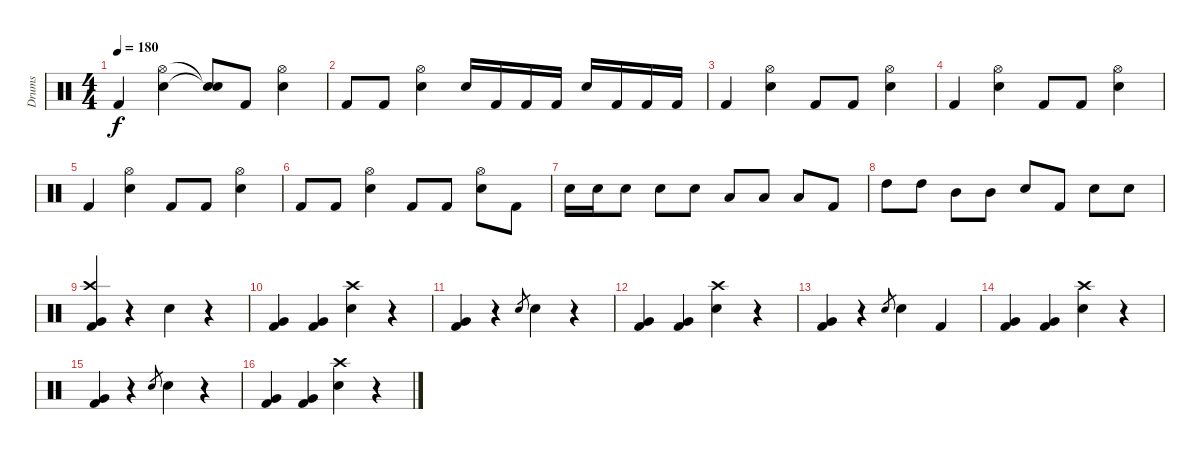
\track ("Drums" "Drums") {instrument percussion}
\staff {score}
\articulation defaults
\ts (4 4)
\tempo 180
\clef neutral
\ks c "Kick (hit) 2".4{dy f}
("Hi-Hat (open)" "Electric Snare (hit)").4 ("Snare (hit)"{t} "Snare (hit)"{t}).8 "Kick (hit) 2".8 ("Hi-Hat (open)" "Electric Snare (hit)").4 |
"Kick (hit) 2".8 "Kick (hit) 2".8 ("Hi-Hat (open)" "Electric Snare (hit)").4 "Electric Snare (hit)".16 "Kick (hit) 2".16 "Kick (hit) 2".16 "Kick (hit) 2".16 "Electric Snare (hit)".16 "Kick (hit) 2".16 "Kick (hit) 2".16 "Kick (hit) 2".16 |
"Kick (hit) 2".4 ("Hi-Hat (open)" "Electric Snare (hit)").4 "Kick (hit) 2".8 "Kick (hit) 2".8 ("Hi-Hat (open)" "Electric Snare (hit)").4 |
"Kick (hit) 2".4 ("Hi-Hat (open)" "Electric Snare (hit)").4 "Kick (hit) 2".8 "Kick (hit) 2".8 ("Hi-Hat (open)" "Electric Snare (hit)").4 |
"Kick (hit) 2".4 ("Hi-Hat (open)" "Electric Snare (hit)").4 "Kick (hit) 2".8 "Kick (hit) 2".8 ("Hi-Hat (open)" "Electric Snare (hit)").4 |
"Kick (hit) 2".8 "Kick (hit) 2".8 ("Hi-Hat (open)" "Electric Snare (hit)").4 "Kick (hit) 2".8 "Kick (hit) 2".8 ("Hi-Hat (open)" "Electric Snare (hit)").8 "Kick (hit) 2".8 |
"Electric Snare (hit)".16 "Electric Snare (hit)".16 "Electric Snare (hit)".8 "Electric Snare (hit)".8 "Electric Snare (hit)".8 "Low Tom (hit)".8 "Low Tom (hit)".8 "Low Tom (hit)".8 "Kick (hit) 2".8 |
"High Tom (hit)".8 "High Tom (hit)".8 "Mid Tom (hit)".8 "Mid Tom (hit)".8 "Electric Snare (hit)".8 "Kick (hit) 2".8 "Electric Snare (hit)".8 "Electric Snare (hit)".8 |
("Crash high (hit)" "Very Low Tom (hit)" "Kick (hit) 2").4 r.4 "Electric Snare (hit)".4 r.4 |
("Very Low Tom (hit)" "Kick (hit) 2").4 ("Very Low Tom (hit)" "Kick (hit) 2").4 ("Crash high (hit)" "Electric Snare (hit)").4 r.4 |
("Very Low Tom (hit)" "Kick (hit) 2").4 r.4 "Electric Snare (hit)".8{gr} "Electric Snare (hit)".4 r.4 |
("Very Low Tom (hit)" "Kick (hit) 2").4 ("Very Low Tom (hit)" "Kick (hit) 2").4 ("Crash high (hit)" "Electric Snare (hit)").4 r.4 |
("Very Low Tom (hit)" "Kick (hit) 2").4 r.4 "Electric Snare (hit)".8{gr} "Electric Snare (hit)".4 "Kick (hit) 2".4 |
("Very Low Tom (hit)" "Kick (hit) 2").4 ("Very Low Tom (hit)" "Kick (hit) 2").4 ("Crash high (hit)" "Electric Snare (hit)").4 r.4 |
("Very Low Tom (hit)" "Kick (hit) 2").4 r.4 "Electric Snare (hit)".8{gr} "Electric Snare (hit)".4 r.4 |
("Very Low Tom (hit)" "Kick (hit) 2").4 ("Very Low Tom (hit)" "Kick (hit) 2").4 ("Crash high (hit)" "Electric Snare (hit)").4 r.4
